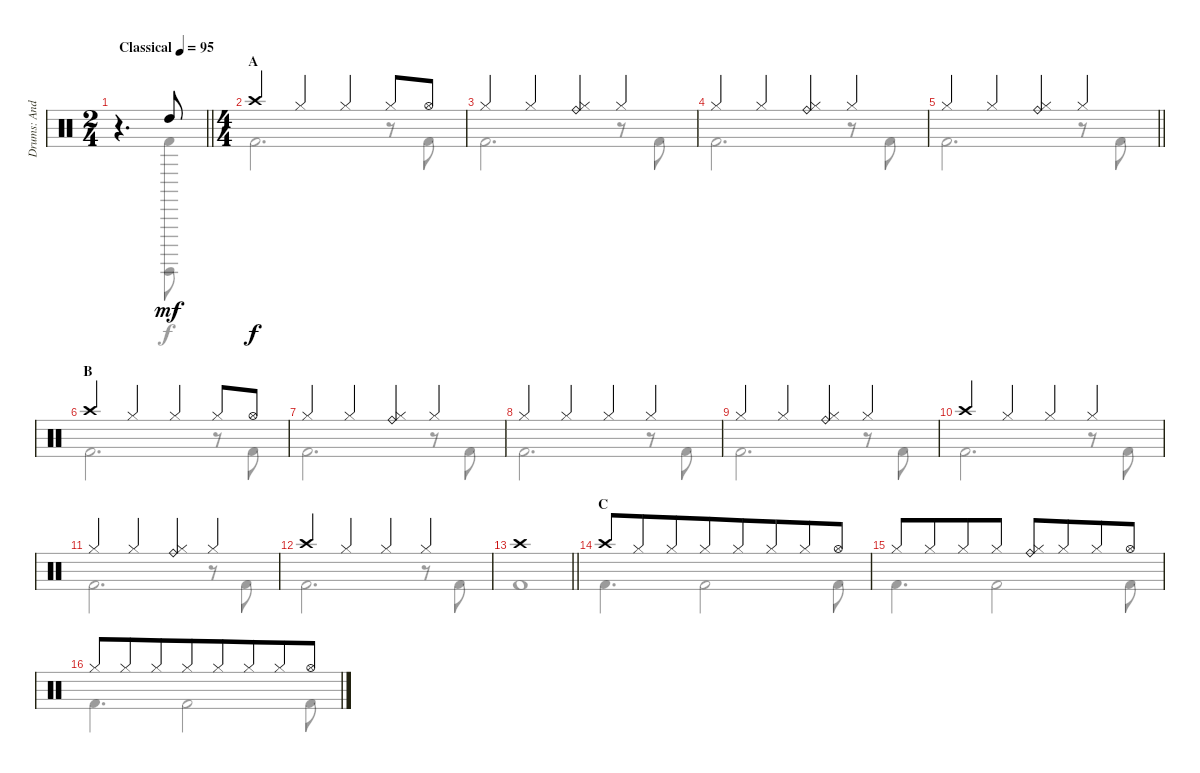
\track ("Drums: Andy" "Drums: And") {instrument percussion}
\staff {score}
\articulation defaults
\voice
\ts (2 4)
\tempo (95 "Classical")
\clef neutral
\barLineRight lightlight
\ks c
r.4{d dy mf} "High Tom (hit)".8 |
\ts (4 4)
\section ("" "A")
"Crash high (hit)".4{dy f} "Hi-Hat (closed)".4 "Hi-Hat (closed)".4 "Hi-Hat (closed)".8 "Hi-Hat (open)".8 |
"Hi-Hat (closed)".4 "Hi-Hat (closed)".4 ("Ride (bell)" "Hi-Hat (closed)").4 "Hi-Hat (closed)".4 |
"Hi-Hat (closed)".4 "Hi-Hat (closed)".4 ("Ride (bell)" "Hi-Hat (closed)").4 "Hi-Hat (closed)".4 |
\barLineRight lightlight "Hi-Hat (closed)".4 "Hi-Hat (closed)".4
("Ride (bell)" "Hi-Hat (closed)").4 "Hi-Hat (closed)".4 |
\section ("" "B")
"Crash high (hit)".4 "Hi-Hat (closed)".4 "Hi-Hat (closed)".4 "Hi-Hat (closed)".8 "Hi-Hat (open)".8 |
"Hi-Hat (closed)".4 "Hi-Hat (closed)".4 ("Ride (bell)" "Hi-Hat (closed)").4 "Hi-Hat (closed)".4 |
"Hi-Hat (closed)".4 "Hi-Hat (closed)".4 "Hi-Hat (closed)".4 "Hi-Hat (closed)".4 |
"Hi-Hat (closed)".4 "Hi-Hat (closed)".4 ("Ride (bell)" "Hi-Hat (closed)").4 "Hi-Hat (closed)".4 |
"Crash high (hit)".4 "Hi-Hat (closed)".4 "Hi-Hat (closed)".4 "Hi-Hat (closed)".4 |
"Hi-Hat (closed)".4 "Hi-Hat (closed)".4 ("Ride (bell)" "Hi-Hat (closed)").4 "Hi-Hat (closed)".4 |
"Crash high (hit)".4 "Hi-Hat (closed)".4 "Hi-Hat (closed)".4 "Hi-Hat (closed)".4 |
\barLineRight lightlight "Crash high (hit)".1
|
\section ("" "C")
"Crash high (hit)".8{beam merge} "Hi-Hat (closed)".8{beam merge} "Hi-Hat (closed)".8 "Hi-Hat (closed)".8{beam merge} "Hi-Hat (closed)".8 "Hi-Hat (closed)".8{beam merge} "Hi-Hat (closed)".8 "Hi-Hat (open)".8 |
"Hi-Hat (closed)".8 "Hi-Hat (closed)".8{beam merge} "Hi-Hat (closed)".8 "Hi-Hat (closed)".8 ("Ride (bell)" "Hi-Hat (closed)").8 "Hi-Hat (closed)".8{beam merge} "Hi-Hat (closed)".8 "Hi-Hat (open)".8 |
"Hi-Hat (closed)".8{beam merge} "Hi-Hat (closed)".8{beam merge} "Hi-Hat (closed)".8 "Hi-Hat (closed)".8{beam merge} "Hi-Hat (closed)".8 "Hi-Hat (closed)".8{beam merge} "Hi-Hat (closed)".8 "Hi-Hat (open)".8
\voice
\clef neutral
\ottava regular
\simile none
\barLineRight lightlight
\ks c
r.4{d dy f} ("Kick (hit) 2" "Surdo (hit)").8 |
"Kick (hit) 2".2{d} r.8 "Kick (hit) 2".8 |
"Kick (hit) 2".2{d} r.8 "Kick (hit) 2".8 |
"Kick (hit) 2".2{d} r.8 "Kick (hit) 2".8 |
\barLineRight lightlight "Kick (hit) 2".2{d}
r.8 "Kick (hit) 2".8 |
"Kick (hit) 2".2{d} r.8 "Kick (hit) 2".8 |
"Kick (hit) 2".2{d} r.8 "Kick (hit) 2".8 |
"Kick (hit) 2".2{d} r.8 "Kick (hit) 2".8 |
"Kick (hit) 2".2{d} r.8 "Kick (hit) 2".8 |
"Kick (hit) 2".2{d} r.8 "Kick (hit) 2".8 |
"Kick (hit) 2".2{d} r.8 "Kick (hit) 2".8 |
"Kick (hit) 2".2{d} r.8 "Kick (hit) 2".8 |
\barLineRight lightlight "Kick (hit) 2".1
|
"Kick (hit) 2".4{d} "Kick (hit) 2".2 "Kick (hit) 2".8 |
"Kick (hit) 2".4{d} "Kick (hit) 2".2 "Kick (hit) 2".8 |
"Kick (hit) 2".4{d} "Kick (hit) 2".2 "Kick (hit) 2".8
